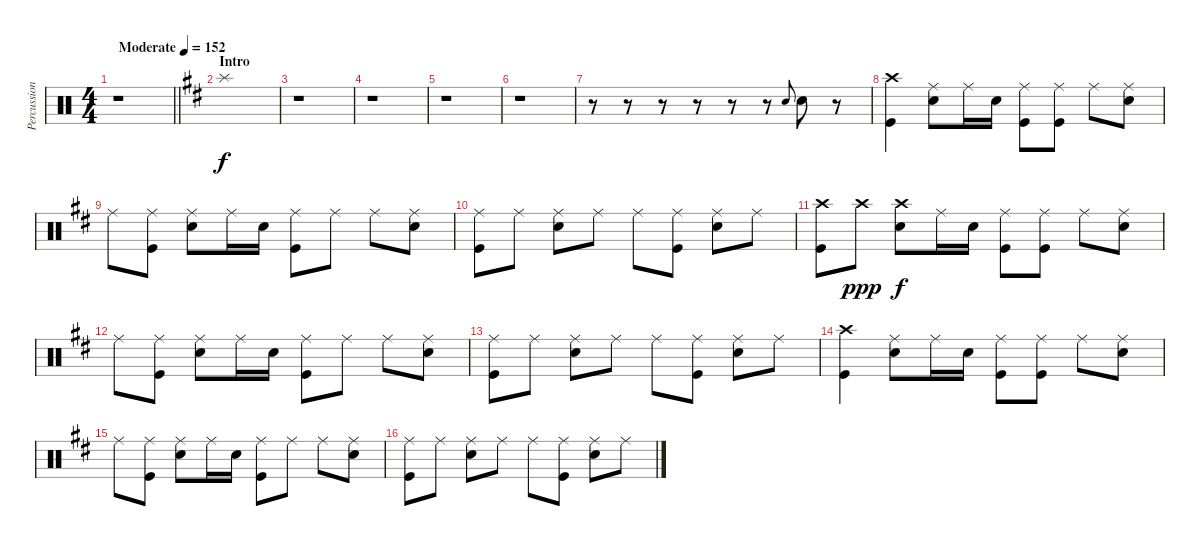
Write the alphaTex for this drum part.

\track ("Percussion" "Percussion") {instrument percussion}
\staff {score}
\articulation defaults
\ts (4 4)
\tempo (152 "Moderate")
\clef neutral
\barLineRight lightlight
\ks c
r.1{dy f} |
\section ("" "Intro")
\ks d "Splash (hit)".1{volume 8}
|
r.1 |
r.1 |
r.1 |
r.1 |
r.8 r.8 r.8 r.8 r.8 r.8 "Snare (hit) 2".8{gr onbeat} "Snare (hit) 2".8 r.8 |
("Crash high (hit)" "Kick (hit)").4 ("Ride (middle)" "Snare (hit) 2").8 "Ride (middle)".16 "Snare (hit) 2".16 ("Ride (middle)" "Kick (hit)").8 ("Ride (middle)" "Kick (hit)").8 "Ride (middle)".8 ("Ride (middle)" "Snare (hit) 2").8 |
"Ride (middle)".8 ("Ride (middle)" "Kick (hit)").8 ("Ride (middle)" "Snare (hit) 2").8 "Ride (middle)".16 "Snare (hit) 2".16 ("Ride (middle)" "Kick (hit)").8 "Ride (middle)".8 "Ride (middle)".8 ("Ride (middle)" "Snare (hit) 2").8 |
("Ride (middle)" "Kick (hit)").8 "Ride (middle)".8 ("Ride (middle)" "Snare (hit) 2").8 "Ride (middle)".8 "Ride (middle)".8 ("Ride (middle)" "Kick (hit)").8 ("Ride (middle)" "Snare (hit) 2").8 "Ride (middle)".8 |
("Crash high (hit)" "Kick (hit)").8 "Crash high (hit)".8{dy ppp} ("Crash high (hit)" "Snare (hit) 2").8{dy f} "Ride (middle)".16 "Snare (hit) 2".16 ("Ride (middle)" "Kick (hit)").8 ("Ride (middle)" "Kick (hit)").8 "Ride (middle)".8 ("Ride (middle)" "Snare (hit) 2").8 |
"Ride (middle)".8 ("Ride (middle)" "Kick (hit)").8 ("Ride (middle)" "Snare (hit) 2").8 "Ride (middle)".16 "Snare (hit) 2".16 ("Ride (middle)" "Kick (hit)").8 "Ride (middle)".8 "Ride (middle)".8 ("Ride (middle)" "Snare (hit) 2").8 |
("Ride (middle)" "Kick (hit)").8 "Ride (middle)".8 ("Ride (middle)" "Snare (hit) 2").8 "Ride (middle)".8 "Ride (middle)".8 ("Ride (middle)" "Kick (hit)").8 ("Ride (middle)" "Snare (hit) 2").8 "Ride (middle)".8 |
("Crash high (hit)" "Kick (hit)").4 ("Ride (middle)" "Snare (hit) 2").8 "Ride (middle)".16 "Snare (hit) 2".16 ("Ride (middle)" "Kick (hit)").8 ("Ride (middle)" "Kick (hit)").8 "Ride (middle)".8 ("Ride (middle)" "Snare (hit) 2").8 |
"Ride (middle)".8 ("Ride (middle)" "Kick (hit)").8 ("Ride (middle)" "Snare (hit) 2").8 "Ride (middle)".16 "Snare (hit) 2".16 ("Ride (middle)" "Kick (hit)").8 "Ride (middle)".8 "Ride (middle)".8 ("Ride (middle)" "Snare (hit) 2").8 |
("Ride (middle)" "Kick (hit)").8 "Ride (middle)".8 ("Ride (middle)" "Snare (hit) 2").8 "Ride (middle)".8 "Ride (middle)".8 ("Ride (middle)" "Kick (hit)").8 ("Ride (middle)" "Snare (hit) 2").8 "Ride (middle)".8
